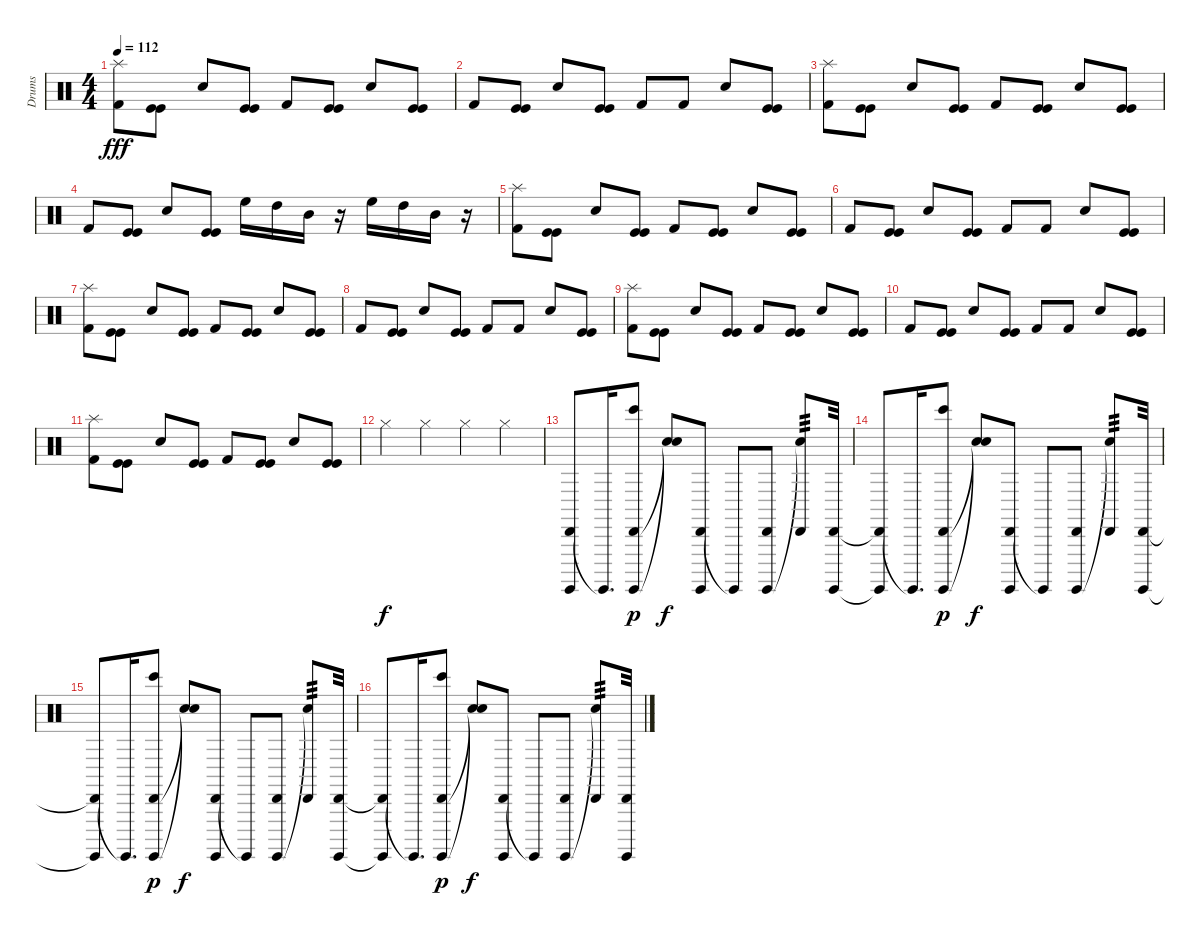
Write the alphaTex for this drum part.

\track ("Drums" "Drums") {instrument percussion}
\staff {score}
\articulation defaults
\ts (4 4)
\tempo 112
\clef neutral
\ks c
("Kick (hit) 2" "Splash (hit)").8{dy fff} ("Kick (hit)" "Kick (hit)").8 "Snare (hit) 2".8 ("Kick (hit)" "Kick (hit)").8 "Kick (hit) 2".8 ("Kick (hit)" "Kick (hit)").8 "Snare (hit) 2".8 ("Kick (hit)" "Kick (hit)").8 |
"Kick (hit) 2".8 ("Kick (hit)" "Kick (hit)").8 "Snare (hit) 2".8 ("Kick (hit)" "Kick (hit)").8 "Kick (hit) 2".8 "Kick (hit) 2".8 "Snare (hit) 2".8 ("Kick (hit)" "Kick (hit)").8 |
("Kick (hit) 2" "Splash (hit)").8 ("Kick (hit)" "Kick (hit)").8 "Snare (hit) 2".8 ("Kick (hit)" "Kick (hit)").8 "Kick (hit) 2".8 ("Kick (hit)" "Kick (hit)").8 "Snare (hit) 2".8 ("Kick (hit)" "Kick (hit)").8 |
"Kick (hit) 2".8 ("Kick (hit)" "Kick (hit)").8 "Snare (hit) 2".8 ("Kick (hit)" "Kick (hit)").8 "High Floor Tom (hit)".16 "High Tom (hit)".16 "Mid Tom (hit)".16 r.16 "High Floor Tom (hit)".16 "High Tom (hit)".16 "Mid Tom (hit)".16 r.16 |
("Kick (hit) 2" "Splash (hit)").8 ("Kick (hit)" "Kick (hit)").8 "Snare (hit) 2".8 ("Kick (hit)" "Kick (hit)").8 "Kick (hit) 2".8 ("Kick (hit)" "Kick (hit)").8 "Snare (hit) 2".8 ("Kick (hit)" "Kick (hit)").8 |
"Kick (hit) 2".8 ("Kick (hit)" "Kick (hit)").8 "Snare (hit) 2".8 ("Kick (hit)" "Kick (hit)").8 "Kick (hit) 2".8 "Kick (hit) 2".8 "Snare (hit) 2".8 ("Kick (hit)" "Kick (hit)").8 |
("Kick (hit) 2" "Splash (hit)").8 ("Kick (hit)" "Kick (hit)").8 "Snare (hit) 2".8 ("Kick (hit)" "Kick (hit)").8 "Kick (hit) 2".8 ("Kick (hit)" "Kick (hit)").8 "Snare (hit) 2".8 ("Kick (hit)" "Kick (hit)").8 |
"Kick (hit) 2".8 ("Kick (hit)" "Kick (hit)").8 "Snare (hit) 2".8 ("Kick (hit)" "Kick (hit)").8 "Kick (hit) 2".8 "Kick (hit) 2".8 "Snare (hit) 2".8 ("Kick (hit)" "Kick (hit)").8 |
("Kick (hit) 2" "Splash (hit)").8 ("Kick (hit)" "Kick (hit)").8 "Snare (hit) 2".8 ("Kick (hit)" "Kick (hit)").8 "Kick (hit) 2".8 ("Kick (hit)" "Kick (hit)").8 "Snare (hit) 2".8 ("Kick (hit)" "Kick (hit)").8 |
"Kick (hit) 2".8 ("Kick (hit)" "Kick (hit)").8 "Snare (hit) 2".8 ("Kick (hit)" "Kick (hit)").8 "Kick (hit) 2".8 "Kick (hit) 2".8 "Snare (hit) 2".8 ("Kick (hit)" "Kick (hit)").8 |
("Kick (hit) 2" "Splash (hit)").8 ("Kick (hit)" "Kick (hit)").8 "Snare (hit) 2".8 ("Kick (hit)" "Kick (hit)").8 "Kick (hit) 2".8 ("Kick (hit)" "Kick (hit)").8 "Snare (hit) 2".8 ("Kick (hit)" "Kick (hit)").8 |
"Hi-Hat (closed)".4{dy f} "Hi-Hat (closed)".4 "Hi-Hat (closed)".4 "Hi-Hat (closed)".4 |
("Cabasa (hit)" "Surdo (hit)").8 "Surdo (hit)"{t}.16{d} ("Cabasa (hit)" "Surdo (hit)" "Bongo High (hit)").8{dy p} ("Snare (hit)"{t} "Snare (hit)"{t}).8{dy f} ("Cabasa (hit)" "Surdo (hit)").8 "Surdo (hit)"{t}.8 ("Cabasa (hit)" "Surdo (hit)").8 ("Cabasa (hit)" "Snare (hit)"{t}).8{tp 3} ("Cabasa (hit)" "Surdo (hit)").32 |
("Cabasa (hit)"{t} "Surdo (hit)"{t}).8 "Surdo (hit)"{t}.16{d} ("Cabasa (hit)" "Surdo (hit)" "Bongo High (hit)").8{dy p} ("Snare (hit)"{t} "Snare (hit)"{t}).8{dy f} ("Cabasa (hit)" "Surdo (hit)").8 "Surdo (hit)"{t}.8 ("Cabasa (hit)" "Surdo (hit)").8 ("Cabasa (hit)" "Snare (hit)"{t}).8{tp 3} ("Cabasa (hit)" "Surdo (hit)").32 |
("Cabasa (hit)"{t} "Surdo (hit)"{t}).8 "Surdo (hit)"{t}.16{d} ("Cabasa (hit)" "Surdo (hit)" "Bongo High (hit)").8{dy p} ("Snare (hit)"{t} "Snare (hit)"{t}).8{dy f} ("Cabasa (hit)" "Surdo (hit)").8 "Surdo (hit)"{t}.8 ("Cabasa (hit)" "Surdo (hit)").8 ("Cabasa (hit)" "Snare (hit)"{t}).8{tp 3} ("Cabasa (hit)" "Surdo (hit)").32 |
("Cabasa (hit)"{t} "Surdo (hit)"{t}).8 "Surdo (hit)"{t}.16{d} ("Cabasa (hit)" "Surdo (hit)" "Bongo High (hit)").8{dy p} ("Snare (hit)"{t} "Snare (hit)"{t}).8{dy f} ("Cabasa (hit)" "Surdo (hit)").8 "Surdo (hit)"{t}.8 ("Cabasa (hit)" "Surdo (hit)").8 ("Cabasa (hit)" "Snare (hit)"{t}).8{tp 3} ("Cabasa (hit)" "Surdo (hit)").32
